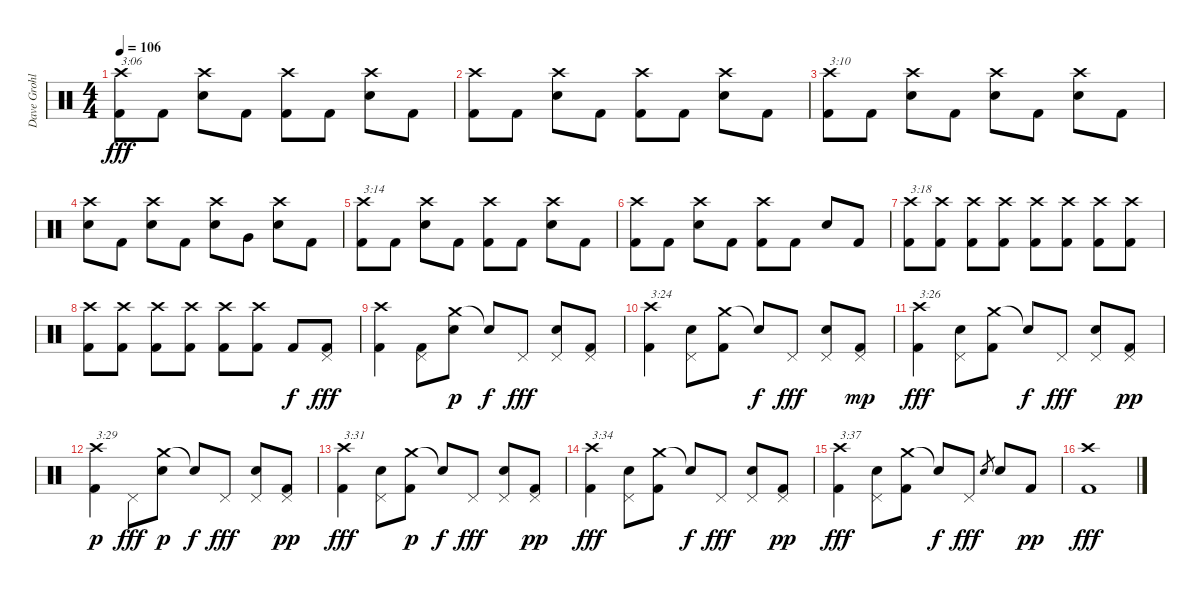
\track ("Dave Grohl" "Dave Grohl") {instrument percussion}
\staff {score}
\articulation defaults
\ts (4 4)
\tempo 106
\clef neutral
\ks c
("Crash high (hit)" "Kick (hit) 2").8{txt "3:06" dy fff} "Kick (hit) 2".8 ("Crash high (hit)" "Snare (hit) 2").8 "Kick (hit) 2".8 ("Crash high (hit)" "Kick (hit) 2").8 "Kick (hit) 2".8 ("Crash high (hit)" "Snare (hit) 2").8 "Kick (hit) 2".8 |
("Crash high (hit)" "Kick (hit) 2").8 "Kick (hit) 2".8 ("Crash high (hit)" "Snare (hit) 2").8 "Kick (hit) 2".8 ("Crash high (hit)" "Kick (hit) 2").8 "Kick (hit) 2".8 ("Crash high (hit)" "Snare (hit) 2").8 "Kick (hit) 2".8 |
("Crash high (hit)" "Kick (hit) 2").8{txt "3:10"} "Kick (hit) 2".8 ("Crash high (hit)" "Snare (hit) 2").8 "Kick (hit) 2".8 ("Crash high (hit)" "Snare (hit) 2").8 "Kick (hit) 2".8 ("Crash high (hit)" "Snare (hit) 2").8 "Kick (hit) 2".8 |
("Crash high (hit)" "Snare (hit) 2").8 "Kick (hit) 2".8 ("Crash high (hit)" "Snare (hit) 2").8 "Kick (hit) 2".8 ("Crash high (hit)" "Snare (hit) 2").8 "Very Low Tom (hit)".8 ("Crash high (hit)" "Snare (hit) 2").8 "Kick (hit) 2".8 |
("Crash high (hit)" "Kick (hit) 2").8{txt "3:14"} "Kick (hit) 2".8 ("Crash high (hit)" "Snare (hit) 2").8 "Kick (hit) 2".8 ("Crash high (hit)" "Kick (hit) 2").8 "Kick (hit) 2".8 ("Crash high (hit)" "Snare (hit) 2").8 "Kick (hit) 2".8 |
("Crash high (hit)" "Kick (hit) 2").8 "Kick (hit) 2".8 ("Crash high (hit)" "Snare (hit) 2").8 "Kick (hit) 2".8 ("Crash high (hit)" "Kick (hit) 2").8 "Kick (hit) 2".8 "Snare (hit) 2".8 "Kick (hit) 2".8 |
("Crash high (hit)" "Kick (hit) 2").8{txt "3:18"} ("Crash high (hit)" "Kick (hit) 2").8 ("Crash high (hit)" "Kick (hit) 2").8 ("Crash high (hit)" "Kick (hit) 2").8 ("Crash high (hit)" "Kick (hit) 2").8 ("Crash high (hit)" "Kick (hit) 2").8 ("Crash high (hit)" "Kick (hit) 2").8 ("Crash high (hit)" "Kick (hit) 2").8 |
("Crash high (hit)" "Kick (hit) 2").8 ("Crash high (hit)" "Kick (hit) 2").8 ("Crash high (hit)" "Kick (hit) 2").8 ("Crash high (hit)" "Kick (hit) 2").8 ("Crash high (hit)" "Kick (hit) 2").8 ("Crash high (hit)" "Kick (hit) 2").8 "Kick (hit) 2".8{dy f} ("Pedal Hi-Hat (hit)" "Kick (hit) 2").8{dy fff} |
("Crash high (hit)" "Kick (hit) 2").4 ("Pedal Hi-Hat (hit)" "Kick (hit) 2").8 ("Crash medium (hit)" "Snare (hit) 2").8{dy p} "Snare (hit)"{t}.8{dy f} "Pedal Hi-Hat (hit)".8{dy fff} ("Pedal Hi-Hat (hit)" "Snare (hit) 2").8 ("Pedal Hi-Hat (hit)" "Kick (hit) 2").8 |
("Crash high (hit)" "Kick (hit) 2").4{txt "3:24"} ("Pedal Hi-Hat (hit)" "Snare (hit) 2").8 ("Crash medium (hit)" "Kick (hit) 2").8 "Snare (hit)"{t}.8{dy f} "Pedal Hi-Hat (hit)".8{dy fff} ("Pedal Hi-Hat (hit)" "Snare (hit) 2").8 ("Pedal Hi-Hat (hit)" "Kick (hit) 2").8{dy mp} |
("Crash high (hit)" "Kick (hit) 2").4{txt "3:26" dy fff} ("Pedal Hi-Hat (hit)" "Snare (hit) 2").8 ("Crash medium (hit)" "Kick (hit) 2").8 "Snare (hit)"{t}.8{dy f} "Pedal Hi-Hat (hit)".8{dy fff} ("Pedal Hi-Hat (hit)" "Snare (hit) 2").8 ("Pedal Hi-Hat (hit)" "Kick (hit) 2").8{dy pp} |
("Crash high (hit)" "Kick (hit) 2").4{txt "3:29" dy p} "Pedal Hi-Hat (hit)".8{dy fff} ("Crash medium (hit)" "Snare (hit) 2").8{dy p} "Snare (hit)"{t}.8{dy f} "Pedal Hi-Hat (hit)".8{dy fff} ("Pedal Hi-Hat (hit)" "Snare (hit) 2").8 ("Pedal Hi-Hat (hit)" "Kick (hit) 2").8{dy pp} |
("Crash high (hit)" "Kick (hit) 2").4{txt "3:31" dy fff} ("Pedal Hi-Hat (hit)" "Snare (hit) 2").8 ("Crash medium (hit)" "Kick (hit) 2").8{dy p} "Snare (hit)"{t}.8{dy f} "Pedal Hi-Hat (hit)".8{dy fff} ("Pedal Hi-Hat (hit)" "Snare (hit) 2").8 ("Pedal Hi-Hat (hit)" "Kick (hit) 2").8{dy pp} |
("Crash high (hit)" "Kick (hit) 2").4{txt "3:34" dy fff} ("Pedal Hi-Hat (hit)" "Snare (hit) 2").8 ("Crash medium (hit)" "Kick (hit) 2").8 "Snare (hit)"{t}.8{dy f} "Pedal Hi-Hat (hit)".8{dy fff} ("Pedal Hi-Hat (hit)" "Snare (hit) 2").8 ("Pedal Hi-Hat (hit)" "Kick (hit) 2").8{dy pp} |
("Crash high (hit)" "Kick (hit) 2").4{txt "3:37" dy fff} ("Pedal Hi-Hat (hit)" "Snare (hit) 2").8 ("Crash medium (hit)" "Kick (hit) 2").8 "Snare (hit)"{t}.8{dy f} "Pedal Hi-Hat (hit)".8{dy fff} "Snare (hit) 2".8{gr} "Snare (hit) 2".8 "Kick (hit) 2".8{dy pp} |
("Crash high (hit)" "Kick (hit) 2").1{dy fff}
